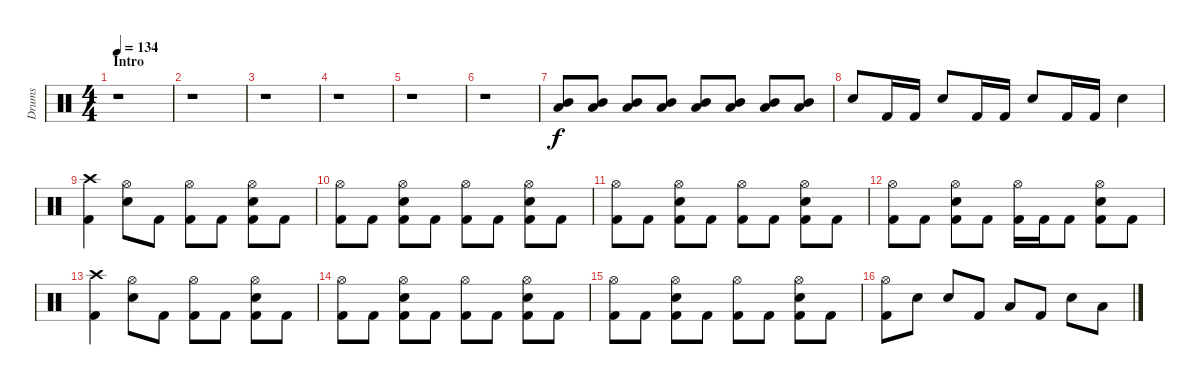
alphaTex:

\track ("Drums" "Drums") {instrument percussion}
\staff {score}
\articulation defaults
\ts (4 4)
\section ("" "Intro")
\tempo 134
\clef neutral
\ks c
r.1{dy f} |
r.1 |
r.1 |
r.1 |
r.1 |
r.1 |
("Low Tom (hit)" "Mid Tom (hit)").8 ("Low Tom (hit)" "Mid Tom (hit)").8 ("Low Tom (hit)" "Mid Tom (hit)").8 ("Low Tom (hit)" "Mid Tom (hit)").8 ("Low Tom (hit)" "Mid Tom (hit)").8 ("Low Tom (hit)" "Mid Tom (hit)").8 ("Low Tom (hit)" "Mid Tom (hit)").8 ("Low Tom (hit)" "Mid Tom (hit)").8 |
"Snare (hit) 2".8 "Kick (hit) 2".16 "Kick (hit) 2".16 "Snare (hit) 2".8 "Kick (hit) 2".16 "Kick (hit) 2".16 "Snare (hit) 2".8 "Kick (hit) 2".16 "Kick (hit) 2".16 "Snare (hit) 2".4 |
\section ("" "")
("Crash high (hit)" "Kick (hit) 2").4 ("Hi-Hat (open)" "Snare (hit) 2").8 "Kick (hit) 2".8 ("Hi-Hat (open)" "Kick (hit) 2").8 "Kick (hit) 2".8 ("Hi-Hat (open)" "Snare (hit) 2" "Kick (hit) 2").8 "Kick (hit) 2".8 |
("Hi-Hat (open)" "Kick (hit) 2").8 "Kick (hit) 2".8 ("Hi-Hat (open)" "Snare (hit) 2" "Kick (hit) 2").8 "Kick (hit) 2".8 ("Hi-Hat (open)" "Kick (hit) 2").8 "Kick (hit) 2".8 ("Hi-Hat (open)" "Snare (hit) 2" "Kick (hit) 2").8 "Kick (hit) 2".8 |
("Hi-Hat (open)" "Kick (hit) 2").8 "Kick (hit) 2".8 ("Hi-Hat (open)" "Snare (hit) 2" "Kick (hit) 2").8 "Kick (hit) 2".8 ("Hi-Hat (open)" "Kick (hit) 2").8 "Kick (hit) 2".8 ("Hi-Hat (open)" "Snare (hit) 2" "Kick (hit) 2").8 "Kick (hit) 2".8 |
("Hi-Hat (open)" "Kick (hit) 2").8 "Kick (hit) 2".8 ("Hi-Hat (open)" "Snare (hit) 2" "Kick (hit) 2").8 "Kick (hit) 2".8 ("Hi-Hat (open)" "Kick (hit) 2").16 "Kick (hit) 2".16 "Kick (hit) 2".8 ("Hi-Hat (open)" "Snare (hit) 2" "Kick (hit) 2").8 "Kick (hit) 2".8 |
("Crash high (hit)" "Kick (hit) 2").4 ("Hi-Hat (open)" "Snare (hit) 2").8 "Kick (hit) 2".8 ("Hi-Hat (open)" "Kick (hit) 2").8 "Kick (hit) 2".8 ("Hi-Hat (open)" "Snare (hit) 2" "Kick (hit) 2").8 "Kick (hit) 2".8 |
("Hi-Hat (open)" "Kick (hit) 2").8 "Kick (hit) 2".8 ("Hi-Hat (open)" "Snare (hit) 2" "Kick (hit) 2").8 "Kick (hit) 2".8 ("Hi-Hat (open)" "Kick (hit) 2").8 "Kick (hit) 2".8 ("Hi-Hat (open)" "Snare (hit) 2" "Kick (hit) 2").8 "Kick (hit) 2".8 |
("Hi-Hat (open)" "Kick (hit) 2").8 "Kick (hit) 2".8 ("Hi-Hat (open)" "Snare (hit) 2" "Kick (hit) 2").8 "Kick (hit) 2".8 ("Hi-Hat (open)" "Kick (hit) 2").8 "Kick (hit) 2".8 ("Hi-Hat (open)" "Snare (hit) 2" "Kick (hit) 2").8 "Kick (hit) 2".8 |
("Hi-Hat (open)" "Kick (hit) 2").8 "Snare (hit) 2".8 "Snare (hit) 2".8 "Kick (hit) 2".8 "Low Tom (hit)".8 "Kick (hit) 2".8 "Snare (hit) 2".8 "Low Tom (hit)".8
